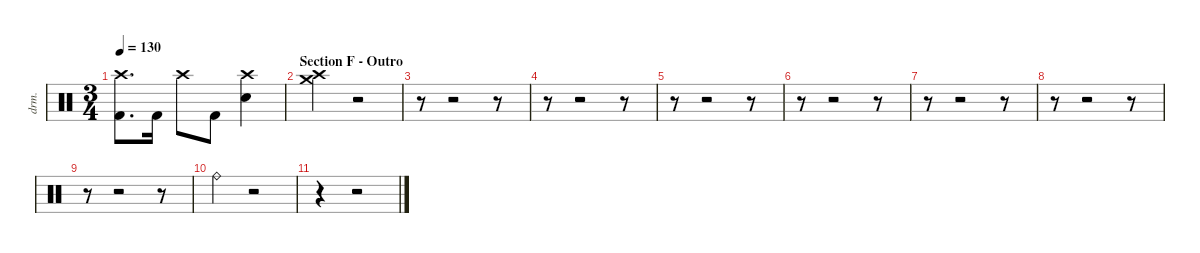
\defaultSystemsLayout 4
\hideDynamics
\bracketExtendMode nobrackets
\otherSystemsTrackNameOrientation horizontal
\track ("Percussion" "drm.") {instrument percussion}
\staff {score}
\articulation defaults
\ts (3 4)
\tempo 130
\clef neutral
\ks c
("Crash high (hit)" "Kick (hit) 2").8{d dy f beam Down} "Kick (hit) 2".16{beam Down} "Crash high (hit)".8{beam Down} "Kick (hit) 2".8{beam Down} ("Crash high (hit)" "Snare (hit) 2").4{beam Down} |
\section ("" "Section F - Outro")
("Crash medium (hit)" "Crash high (hit)").4 r.2 |
r.8 r.2 r.8 |
r.8 r.2 r.8 |
r.8 r.2 r.8 |
r.8 r.2 r.8 |
r.8 r.2 r.8 |
r.8 r.2 r.8 |
r.8 r.2 r.8 |
"Ride (bell)".4 r.2 |
r.4 r.2
